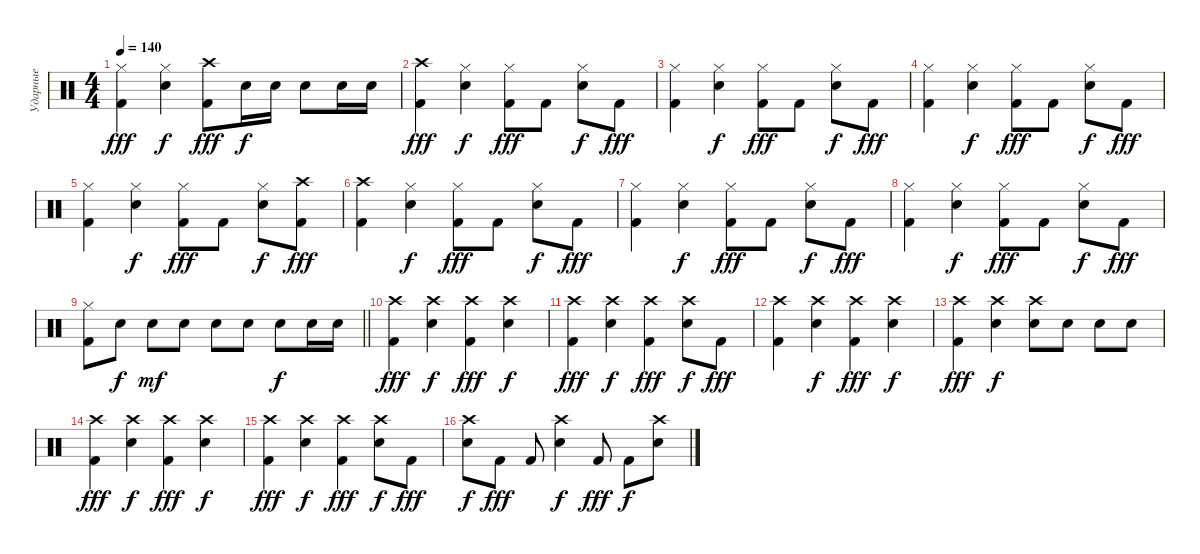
\track ("Ударные" "Ударные") {instrument percussion}
\staff {score}
\articulation defaults
\ts (4 4)
\tempo 140
\clef neutral
\ks c
("Kick (hit) 2" "Hi-Hat (closed)").4{dy fff} ("Snare (hit) 2" "Hi-Hat (closed)").4{dy f} ("Kick (hit) 2" "Crash high (hit)").8{dy fff} "Snare (hit) 2".16{dy f} "Snare (hit) 2".16 "Snare (hit) 2".8 "Snare (hit) 2".16 "Snare (hit) 2".16 |
("Kick (hit) 2" "Crash high (hit)").4{dy fff} ("Snare (hit) 2" "Hi-Hat (closed)").4{dy f} ("Kick (hit) 2" "Hi-Hat (closed)").8{dy fff} "Kick (hit) 2".8 ("Snare (hit) 2" "Hi-Hat (closed)").8{dy f} "Kick (hit) 2".8{dy fff} |
("Kick (hit) 2" "Hi-Hat (closed)").4 ("Snare (hit) 2" "Hi-Hat (closed)").4{dy f} ("Kick (hit) 2" "Hi-Hat (closed)").8{dy fff} "Kick (hit) 2".8 ("Snare (hit) 2" "Hi-Hat (closed)").8{dy f} "Kick (hit) 2".8{dy fff} |
("Kick (hit) 2" "Hi-Hat (closed)").4 ("Snare (hit) 2" "Hi-Hat (closed)").4{dy f} ("Kick (hit) 2" "Hi-Hat (closed)").8{dy fff} "Kick (hit) 2".8 ("Snare (hit) 2" "Hi-Hat (closed)").8{dy f} "Kick (hit) 2".8{dy fff} |
("Kick (hit) 2" "Hi-Hat (closed)").4 ("Snare (hit) 2" "Hi-Hat (closed)").4{dy f} ("Kick (hit) 2" "Hi-Hat (closed)").8{dy fff} "Kick (hit) 2".8 ("Snare (hit) 2" "Hi-Hat (closed)").8{dy f} ("Kick (hit) 2" "Crash high (hit)").8{dy fff} |
("Kick (hit) 2" "Crash high (hit)").4 ("Snare (hit) 2" "Hi-Hat (closed)").4{dy f} ("Kick (hit) 2" "Hi-Hat (closed)").8{dy fff} "Kick (hit) 2".8 ("Snare (hit) 2" "Hi-Hat (closed)").8{dy f} "Kick (hit) 2".8{dy fff} |
("Kick (hit) 2" "Hi-Hat (closed)").4 ("Snare (hit) 2" "Hi-Hat (closed)").4{dy f} ("Kick (hit) 2" "Hi-Hat (closed)").8{dy fff} "Kick (hit) 2".8 ("Snare (hit) 2" "Hi-Hat (closed)").8{dy f} "Kick (hit) 2".8{dy fff} |
("Kick (hit) 2" "Hi-Hat (closed)").4 ("Snare (hit) 2" "Hi-Hat (closed)").4{dy f} ("Kick (hit) 2" "Hi-Hat (closed)").8{dy fff} "Kick (hit) 2".8 ("Snare (hit) 2" "Hi-Hat (closed)").8{dy f} "Kick (hit) 2".8{dy fff} |
\barLineRight lightlight
("Kick (hit) 2" "Hi-Hat (closed)").8 "Snare (hit) 2".8{dy f} "Snare (hit) 2".8{dy mf} "Snare (hit) 2".8 "Snare (hit) 2".8 "Snare (hit) 2".8 "Snare (hit) 2".8{dy f} "Snare (hit) 2".16 "Snare (hit) 2".16 |
("Kick (hit) 2" "Crash high (hit)").4{dy fff} ("Snare (hit) 2" "Crash high (hit)").4{dy f} ("Kick (hit) 2" "Crash high (hit)").4{dy fff} ("Snare (hit) 2" "Crash high (hit)").4{dy f} |
("Kick (hit) 2" "Crash high (hit)").4{dy fff} ("Snare (hit) 2" "Crash high (hit)").4{dy f} ("Kick (hit) 2" "Crash high (hit)").4{dy fff} ("Snare (hit) 2" "Crash high (hit)").8{dy f} "Kick (hit) 2".8{dy fff} |
("Kick (hit) 2" "Crash high (hit)").4 ("Snare (hit) 2" "Crash high (hit)").4{dy f} ("Kick (hit) 2" "Crash high (hit)").4{dy fff} ("Snare (hit) 2" "Crash high (hit)").4{dy f} |
("Kick (hit) 2" "Crash high (hit)").4{dy fff} ("Snare (hit) 2" "Crash high (hit)").4{dy f} ("Snare (hit) 2" "Crash high (hit)").8 "Snare (hit) 2".8 "Snare (hit) 2".8 "Snare (hit) 2".8 |
("Kick (hit) 2" "Crash high (hit)").4{dy fff} ("Snare (hit) 2" "Crash high (hit)").4{dy f} ("Kick (hit) 2" "Crash high (hit)").4{dy fff} ("Snare (hit) 2" "Crash high (hit)").4{dy f} |
("Kick (hit) 2" "Crash high (hit)").4{dy fff} ("Snare (hit) 2" "Crash high (hit)").4{dy f} ("Kick (hit) 2" "Crash high (hit)").4{dy fff} ("Snare (hit) 2" "Crash high (hit)").8{dy f} "Kick (hit) 2".8{dy fff} |
("Snare (hit) 2" "Crash high (hit)").8{dy f} "Kick (hit) 2".8{dy fff} "Kick (hit) 2".8 ("Snare (hit) 2" "Crash high (hit)").4{dy f} "Kick (hit) 2".8{dy fff} "Kick (hit) 2".8{dy f} ("Snare (hit) 2" "Crash high (hit)").8
